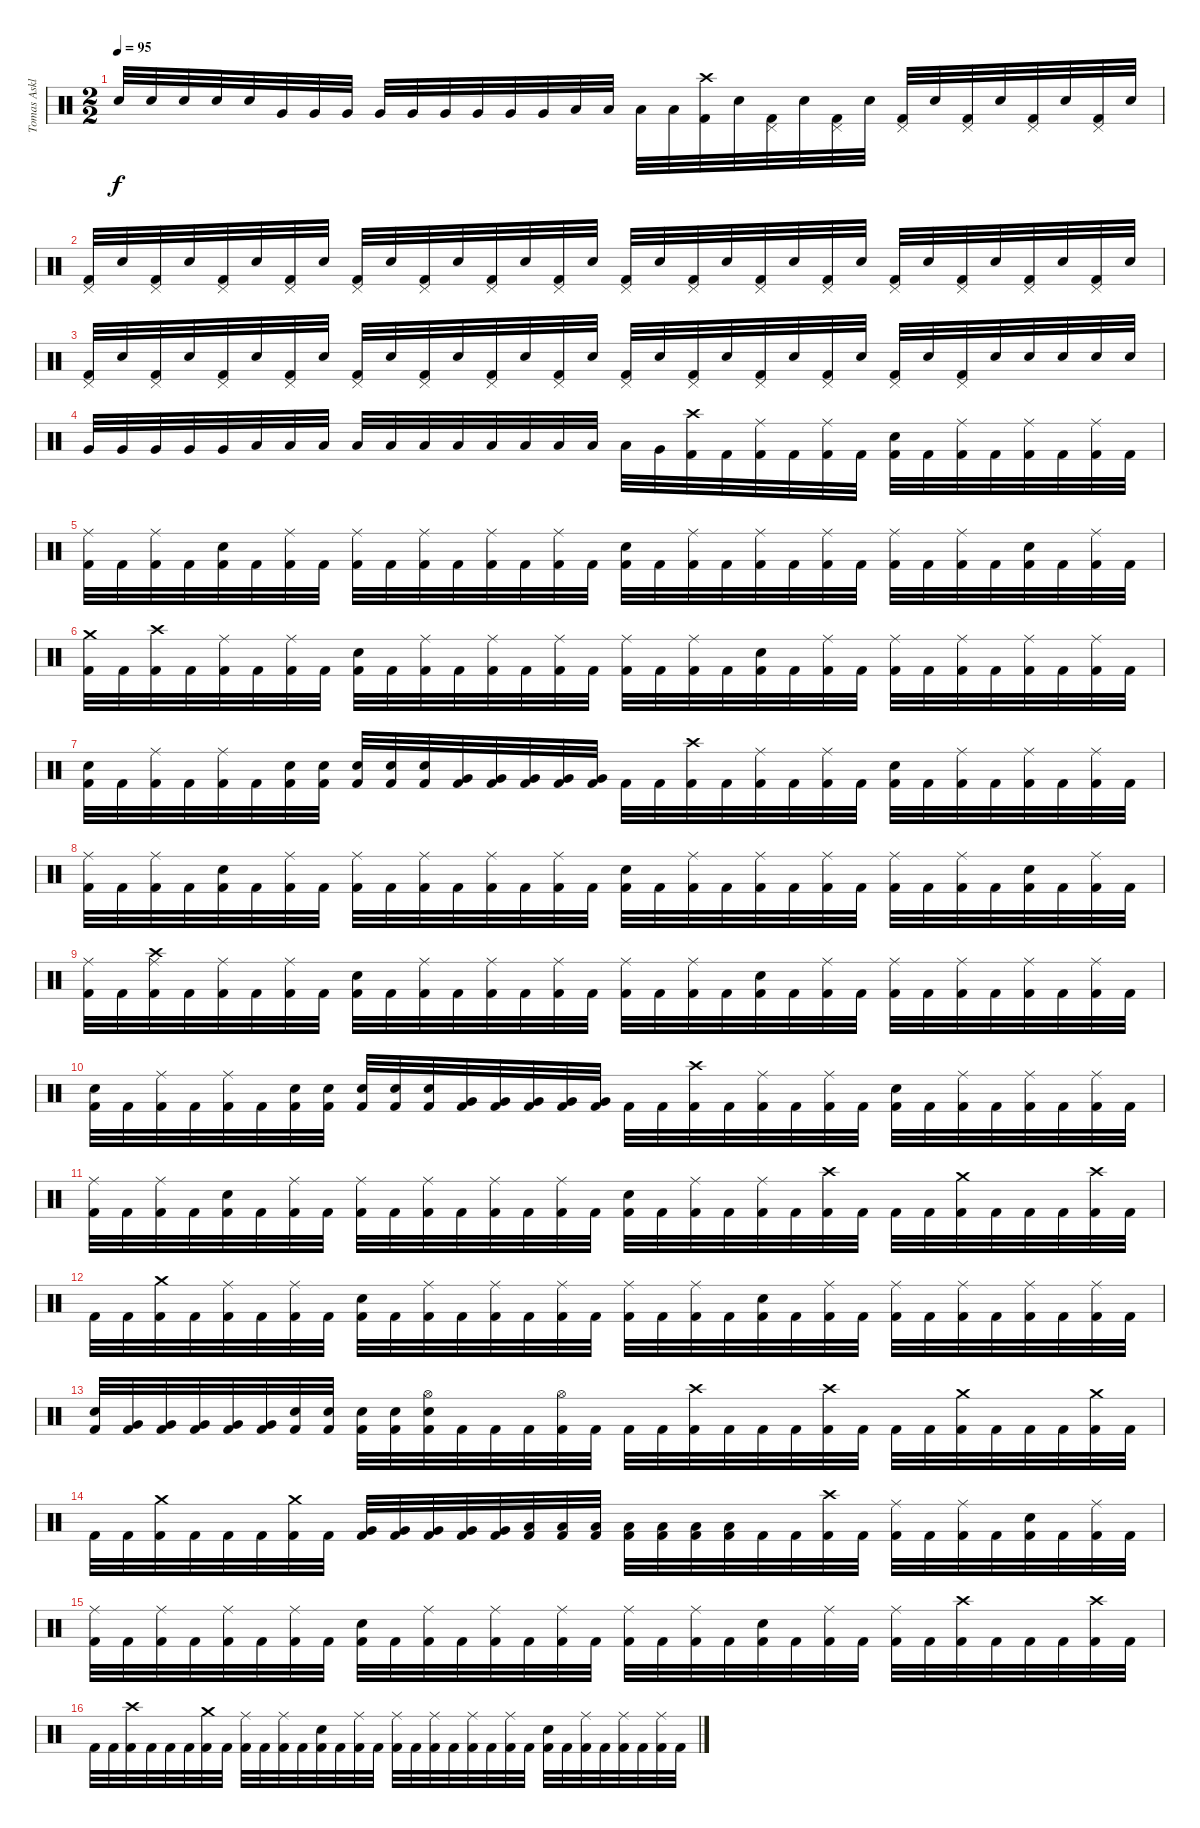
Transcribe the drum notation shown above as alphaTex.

\track ("Tomas Asklund" "Tomas Askl") {instrument percussion}
\staff {score}
\articulation defaults
\ts (2 2)
\tempo 95
\clef neutral
\ks c "Electric Snare (hit)".32{dy f} "Electric Snare (hit)".32 "Electric Snare (hit)".32 "Electric Snare (hit)".32 "Electric Snare (hit)".32 "Very Low Tom (hit)".32 "Very Low Tom (hit)".32 "Very Low Tom (hit)".32 "Very Low Tom (hit)".32 "Very Low Tom (hit)".32 "Very Low Tom (hit)".32 "Very Low Tom (hit)".32 "Very Low Tom (hit)".32 "Very Low Tom (hit)".32 "Low Tom (hit)".32 "Low Tom (hit)".32 "Low Tom (hit)".32 "Low Tom (hit)".32
("Crash high (hit)" "Kick (hit) 2").32 "Snare (hit) 2".32 ("Pedal Hi-Hat (hit)" "Kick (hit) 2").32 "Snare (hit) 2".32 ("Pedal Hi-Hat (hit)" "Kick (hit) 2").32 "Snare (hit) 2".32 ("Pedal Hi-Hat (hit)" "Kick (hit) 2").32 "Snare (hit) 2".32 ("Pedal Hi-Hat (hit)" "Kick (hit) 2").32 "Snare (hit) 2".32 ("Pedal Hi-Hat (hit)" "Kick (hit) 2").32 "Snare (hit) 2".32 ("Pedal Hi-Hat (hit)" "Kick (hit) 2").32 "Snare (hit) 2".32 |
("Pedal Hi-Hat (hit)" "Kick (hit) 2").32 "Snare (hit) 2".32 ("Pedal Hi-Hat (hit)" "Kick (hit) 2").32 "Snare (hit) 2".32 ("Pedal Hi-Hat (hit)" "Kick (hit) 2").32 "Snare (hit) 2".32 ("Pedal Hi-Hat (hit)" "Kick (hit) 2").32 "Snare (hit) 2".32 ("Pedal Hi-Hat (hit)" "Kick (hit) 2").32 "Snare (hit) 2".32 ("Pedal Hi-Hat (hit)" "Kick (hit) 2").32 "Snare (hit) 2".32 ("Pedal Hi-Hat (hit)" "Kick (hit) 2").32 "Snare (hit) 2".32 ("Pedal Hi-Hat (hit)" "Kick (hit) 2").32 "Snare (hit) 2".32 ("Pedal Hi-Hat (hit)" "Kick (hit) 2").32 "Snare (hit) 2".32 ("Pedal Hi-Hat (hit)" "Kick (hit) 2").32 "Snare (hit) 2".32 ("Pedal Hi-Hat (hit)" "Kick (hit) 2").32 "Snare (hit) 2".32 ("Pedal Hi-Hat (hit)" "Kick (hit) 2").32 "Snare (hit) 2".32 ("Pedal Hi-Hat (hit)" "Kick (hit) 2").32 "Snare (hit) 2".32 ("Pedal Hi-Hat (hit)" "Kick (hit) 2").32 "Snare (hit) 2".32 ("Pedal Hi-Hat (hit)" "Kick (hit) 2").32 "Snare (hit) 2".32 ("Pedal Hi-Hat (hit)" "Kick (hit) 2").32 "Snare (hit) 2".32 |
("Pedal Hi-Hat (hit)" "Kick (hit) 2").32 "Snare (hit) 2".32 ("Pedal Hi-Hat (hit)" "Kick (hit) 2").32 "Snare (hit) 2".32 ("Pedal Hi-Hat (hit)" "Kick (hit) 2").32 "Snare (hit) 2".32 ("Pedal Hi-Hat (hit)" "Kick (hit) 2").32 "Snare (hit) 2".32 ("Pedal Hi-Hat (hit)" "Kick (hit) 2").32 "Snare (hit) 2".32 ("Pedal Hi-Hat (hit)" "Kick (hit) 2").32 "Snare (hit) 2".32 ("Pedal Hi-Hat (hit)" "Kick (hit) 2").32 "Snare (hit) 2".32 ("Pedal Hi-Hat (hit)" "Kick (hit) 2").32 "Snare (hit) 2".32 ("Pedal Hi-Hat (hit)" "Kick (hit) 2").32 "Snare (hit) 2".32 ("Pedal Hi-Hat (hit)" "Kick (hit) 2").32 "Snare (hit) 2".32 ("Pedal Hi-Hat (hit)" "Kick (hit) 2").32 "Snare (hit) 2".32 ("Pedal Hi-Hat (hit)" "Kick (hit) 2").32 "Snare (hit) 2".32 ("Pedal Hi-Hat (hit)" "Kick (hit) 2").32 "Snare (hit) 2".32 ("Pedal Hi-Hat (hit)" "Kick (hit) 2").32 "Snare (hit) 2".32 "Snare (hit) 2".32 "Snare (hit) 2".32 "Snare (hit) 2".32 "Snare (hit) 2".32 |
"Very Low Tom (hit)".32 "Very Low Tom (hit)".32 "Very Low Tom (hit)".32 "Very Low Tom (hit)".32 "Very Low Tom (hit)".32 "Low Tom (hit)".32 "Low Tom (hit)".32 "Low Tom (hit)".32 "Low Tom (hit)".32 "Low Tom (hit)".32 "Low Tom (hit)".32 "Low Floor Tom (hit)".32 "Low Floor Tom (hit)".32 "Low Floor Tom (hit)".32 "Low Floor Tom (hit)".32 "Low Floor Tom (hit)".32 "Low Floor Tom (hit)".32 "Very Low Tom (hit)".32 ("Crash high (hit)" "Kick (hit) 2").32 "Kick (hit) 2".32 ("Ride (middle)" "Kick (hit) 2").32 "Kick (hit) 2".32 ("Ride (middle)" "Kick (hit) 2").32 "Kick (hit) 2".32 ("Electric Snare (hit)" "Kick (hit) 2").32 "Kick (hit) 2".32 ("Ride (middle)" "Kick (hit) 2").32 "Kick (hit) 2".32 ("Ride (middle)" "Kick (hit) 2").32 "Kick (hit) 2".32 ("Ride (middle)" "Kick (hit) 2").32 "Kick (hit) 2".32 |
("Ride (middle)" "Kick (hit) 2").32 "Kick (hit) 2".32 ("Ride (middle)" "Kick (hit) 2").32 "Kick (hit) 2".32 ("Electric Snare (hit)" "Kick (hit) 2").32 "Kick (hit) 2".32 ("Ride (middle)" "Kick (hit) 2").32 "Kick (hit) 2".32 ("Ride (middle)" "Kick (hit) 2").32 "Kick (hit) 2".32 ("Ride (middle)" "Kick (hit) 2").32 "Kick (hit) 2".32 ("Ride (middle)" "Kick (hit) 2").32 "Kick (hit) 2".32 ("Ride (middle)" "Kick (hit) 2").32 "Kick (hit) 2".32 ("Electric Snare (hit)" "Kick (hit) 2").32 "Kick (hit) 2".32 ("Ride (middle)" "Kick (hit) 2").32 "Kick (hit) 2".32 ("Ride (middle)" "Kick (hit) 2").32 "Kick (hit) 2".32 ("Ride (middle)" "Kick (hit) 2").32 "Kick (hit) 2".32 ("Ride (middle)" "Kick (hit) 2").32 "Kick (hit) 2".32 ("Ride (middle)" "Kick (hit) 2").32 "Kick (hit) 2".32 ("Electric Snare (hit)" "Kick (hit) 2").32 "Kick (hit) 2".32 ("Ride (middle)" "Kick (hit) 2").32 "Kick (hit) 2".32 |
("Crash medium (hit)" "Kick (hit) 2").32 "Kick (hit) 2".32 ("Crash high (hit)" "Kick (hit) 2").32 "Kick (hit) 2".32 ("Ride (middle)" "Kick (hit) 2").32 "Kick (hit) 2".32 ("Ride (middle)" "Kick (hit) 2").32 "Kick (hit) 2".32 ("Electric Snare (hit)" "Kick (hit) 2").32 "Kick (hit) 2".32 ("Ride (middle)" "Kick (hit) 2").32 "Kick (hit) 2".32 ("Ride (middle)" "Kick (hit) 2").32 "Kick (hit) 2".32 ("Ride (middle)" "Kick (hit) 2").32 "Kick (hit) 2".32 ("Ride (middle)" "Kick (hit) 2").32 "Kick (hit) 2".32 ("Ride (middle)" "Kick (hit) 2").32 "Kick (hit) 2".32 ("Electric Snare (hit)" "Kick (hit) 2").32 "Kick (hit) 2".32 ("Ride (middle)" "Kick (hit) 2").32 "Kick (hit) 2".32 ("Ride (middle)" "Kick (hit) 2").32 "Kick (hit) 2".32 ("Ride (middle)" "Kick (hit) 2").32 "Kick (hit) 2".32 ("Ride (middle)" "Kick (hit) 2").32 "Kick (hit) 2".32 ("Ride (middle)" "Kick (hit) 2").32 "Kick (hit) 2".32 |
("Electric Snare (hit)" "Kick (hit) 2").32 "Kick (hit) 2".32 ("Ride (middle)" "Kick (hit) 2").32 "Kick (hit) 2".32 ("Ride (middle)" "Kick (hit) 2").32 "Kick (hit) 2".32 ("Electric Snare (hit)" "Kick (hit) 2").32 ("Electric Snare (hit)" "Kick (hit) 2").32 ("Electric Snare (hit)" "Kick (hit) 2").32 ("Electric Snare (hit)" "Kick (hit) 2").32 ("Electric Snare (hit)" "Kick (hit) 2").32 ("Very Low Tom (hit)" "Kick (hit) 2").32 ("Very Low Tom (hit)" "Kick (hit) 2").32 ("Very Low Tom (hit)" "Kick (hit) 2").32 ("Very Low Tom (hit)" "Kick (hit) 2").32 ("Very Low Tom (hit)" "Kick (hit) 2").32 "Kick (hit) 2".32 "Kick (hit) 2".32 ("Crash high (hit)" "Kick (hit) 2").32 "Kick (hit) 2".32 ("Ride (middle)" "Kick (hit) 2").32 "Kick (hit) 2".32 ("Ride (middle)" "Kick (hit) 2").32 "Kick (hit) 2".32 ("Electric Snare (hit)" "Kick (hit) 2").32 "Kick (hit) 2".32 ("Ride (middle)" "Kick (hit) 2").32 "Kick (hit) 2".32 ("Ride (middle)" "Kick (hit) 2").32 "Kick (hit) 2".32 ("Ride (middle)" "Kick (hit) 2").32 "Kick (hit) 2".32 |
("Ride (middle)" "Kick (hit) 2").32 "Kick (hit) 2".32 ("Ride (middle)" "Kick (hit) 2").32 "Kick (hit) 2".32 ("Electric Snare (hit)" "Kick (hit) 2").32 "Kick (hit) 2".32 ("Ride (middle)" "Kick (hit) 2").32 "Kick (hit) 2".32 ("Ride (middle)" "Kick (hit) 2").32 "Kick (hit) 2".32 ("Ride (middle)" "Kick (hit) 2").32 "Kick (hit) 2".32 ("Ride (middle)" "Kick (hit) 2").32 "Kick (hit) 2".32 ("Ride (middle)" "Kick (hit) 2").32 "Kick (hit) 2".32 ("Electric Snare (hit)" "Kick (hit) 2").32 "Kick (hit) 2".32 ("Ride (middle)" "Kick (hit) 2").32 "Kick (hit) 2".32 ("Ride (middle)" "Kick (hit) 2").32 "Kick (hit) 2".32 ("Ride (middle)" "Kick (hit) 2").32 "Kick (hit) 2".32 ("Ride (middle)" "Kick (hit) 2").32 "Kick (hit) 2".32 ("Ride (middle)" "Kick (hit) 2").32 "Kick (hit) 2".32 ("Electric Snare (hit)" "Kick (hit) 2").32 "Kick (hit) 2".32 ("Ride (middle)" "Kick (hit) 2").32 "Kick (hit) 2".32 |
("Ride (middle)" "Kick (hit) 2").32 "Kick (hit) 2".32 ("Crash high (hit)" "Ride (middle)" "Kick (hit) 2").32 "Kick (hit) 2".32 ("Ride (middle)" "Kick (hit) 2").32 "Kick (hit) 2".32 ("Ride (middle)" "Kick (hit) 2").32 "Kick (hit) 2".32 ("Electric Snare (hit)" "Kick (hit) 2").32 "Kick (hit) 2".32 ("Ride (middle)" "Kick (hit) 2").32 "Kick (hit) 2".32 ("Ride (middle)" "Kick (hit) 2").32 "Kick (hit) 2".32 ("Ride (middle)" "Kick (hit) 2").32 "Kick (hit) 2".32 ("Ride (middle)" "Kick (hit) 2").32 "Kick (hit) 2".32 ("Ride (middle)" "Kick (hit) 2").32 "Kick (hit) 2".32 ("Electric Snare (hit)" "Kick (hit) 2").32 "Kick (hit) 2".32 ("Ride (middle)" "Kick (hit) 2").32 "Kick (hit) 2".32 ("Ride (middle)" "Kick (hit) 2").32 "Kick (hit) 2".32 ("Ride (middle)" "Kick (hit) 2").32 "Kick (hit) 2".32 ("Ride (middle)" "Kick (hit) 2").32 "Kick (hit) 2".32 ("Ride (middle)" "Kick (hit) 2").32 "Kick (hit) 2".32 |
("Electric Snare (hit)" "Kick (hit) 2").32 "Kick (hit) 2".32 ("Ride (middle)" "Kick (hit) 2").32 "Kick (hit) 2".32 ("Ride (middle)" "Kick (hit) 2").32 "Kick (hit) 2".32 ("Electric Snare (hit)" "Kick (hit) 2").32 ("Electric Snare (hit)" "Kick (hit) 2").32 ("Electric Snare (hit)" "Kick (hit) 2").32 ("Electric Snare (hit)" "Kick (hit) 2").32 ("Electric Snare (hit)" "Kick (hit) 2").32 ("Very Low Tom (hit)" "Kick (hit) 2").32 ("Very Low Tom (hit)" "Kick (hit) 2").32 ("Very Low Tom (hit)" "Kick (hit) 2").32 ("Very Low Tom (hit)" "Kick (hit) 2").32 ("Very Low Tom (hit)" "Kick (hit) 2").32 "Kick (hit) 2".32 "Kick (hit) 2".32 ("Crash high (hit)" "Kick (hit) 2").32 "Kick (hit) 2".32 ("Ride (middle)" "Kick (hit) 2").32 "Kick (hit) 2".32 ("Ride (middle)" "Kick (hit) 2").32 "Kick (hit) 2".32 ("Electric Snare (hit)" "Kick (hit) 2").32 "Kick (hit) 2".32 ("Ride (middle)" "Kick (hit) 2").32 "Kick (hit) 2".32 ("Ride (middle)" "Kick (hit) 2").32 "Kick (hit) 2".32 ("Ride (middle)" "Kick (hit) 2").32 "Kick (hit) 2".32 |
("Ride (middle)" "Kick (hit) 2").32 "Kick (hit) 2".32 ("Ride (middle)" "Kick (hit) 2").32 "Kick (hit) 2".32 ("Electric Snare (hit)" "Kick (hit) 2").32 "Kick (hit) 2".32 ("Ride (middle)" "Kick (hit) 2").32 "Kick (hit) 2".32 ("Ride (middle)" "Kick (hit) 2").32 "Kick (hit) 2".32 ("Ride (middle)" "Kick (hit) 2").32 "Kick (hit) 2".32 ("Ride (middle)" "Kick (hit) 2").32 "Kick (hit) 2".32 ("Ride (middle)" "Kick (hit) 2").32 "Kick (hit) 2".32 ("Electric Snare (hit)" "Kick (hit) 2").32 "Kick (hit) 2".32 ("Ride (middle)" "Kick (hit) 2").32 "Kick (hit) 2".32 ("Ride (middle)" "Kick (hit) 2").32 "Kick (hit) 2".32 ("Crash high (hit)" "Kick (hit) 2").32 "Kick (hit) 2".32 "Kick (hit) 2".32 "Kick (hit) 2".32 ("Crash medium (hit)" "Kick (hit) 2").32 "Kick (hit) 2".32 "Kick (hit) 2".32 "Kick (hit) 2".32 ("Crash high (hit)" "Kick (hit) 2").32 "Kick (hit) 2".32 |
"Kick (hit) 2".32 "Kick (hit) 2".32 ("Crash medium (hit)" "Kick (hit) 2").32 "Kick (hit) 2".32 ("Ride (middle)" "Kick (hit) 2").32 "Kick (hit) 2".32 ("Ride (middle)" "Kick (hit) 2").32 "Kick (hit) 2".32 ("Electric Snare (hit)" "Kick (hit) 2").32 "Kick (hit) 2".32 ("Ride (middle)" "Kick (hit) 2").32 "Kick (hit) 2".32 ("Ride (middle)" "Kick (hit) 2").32 "Kick (hit) 2".32 ("Ride (middle)" "Kick (hit) 2").32 "Kick (hit) 2".32 ("Ride (middle)" "Kick (hit) 2").32 "Kick (hit) 2".32 ("Ride (middle)" "Kick (hit) 2").32 "Kick (hit) 2".32 ("Electric Snare (hit)" "Kick (hit) 2").32 "Kick (hit) 2".32 ("Ride (middle)" "Kick (hit) 2").32 "Kick (hit) 2".32 ("Ride (middle)" "Kick (hit) 2").32 "Kick (hit) 2".32 ("Ride (middle)" "Kick (hit) 2").32 "Kick (hit) 2".32 ("Ride (middle)" "Kick (hit) 2").32 "Kick (hit) 2".32 ("Ride (middle)" "Kick (hit) 2").32 "Kick (hit) 2".32 |
("Electric Snare (hit)" "Kick (hit) 2").32 ("Very Low Tom (hit)" "Kick (hit) 2").32 ("Very Low Tom (hit)" "Kick (hit) 2").32 ("Very Low Tom (hit)" "Kick (hit) 2").32 ("Very Low Tom (hit)" "Kick (hit) 2").32 ("Very Low Tom (hit)" "Kick (hit) 2").32 ("Electric Snare (hit)" "Kick (hit) 2").32 ("Electric Snare (hit)" "Kick (hit) 2").32 ("Electric Snare (hit)" "Kick (hit) 2").32 ("Electric Snare (hit)" "Kick (hit) 2").32 ("Hi-Hat (open)" "Electric Snare (hit)" "Kick (hit) 2").32 "Kick (hit) 2".32 "Kick (hit) 2".32 "Kick (hit) 2".32 ("Hi-Hat (open)" "Kick (hit) 2").32 "Kick (hit) 2".32 "Kick (hit) 2".32 "Kick (hit) 2".32 ("Crash high (hit)" "Kick (hit) 2").32 "Kick (hit) 2".32 "Kick (hit) 2".32 "Kick (hit) 2".32 ("Crash high (hit)" "Kick (hit) 2").32 "Kick (hit) 2".32 "Kick (hit) 2".32 "Kick (hit) 2".32 ("Crash medium (hit)" "Kick (hit) 2").32 "Kick (hit) 2".32 "Kick (hit) 2".32 "Kick (hit) 2".32 ("Crash medium (hit)" "Kick (hit) 2").32 "Kick (hit) 2".32 |
"Kick (hit) 2".32 "Kick (hit) 2".32 ("Crash medium (hit)" "Kick (hit) 2").32 "Kick (hit) 2".32 "Kick (hit) 2".32 "Kick (hit) 2".32 ("Crash medium (hit)" "Kick (hit) 2").32 "Kick (hit) 2".32 ("Very Low Tom (hit)" "Kick (hit) 2").32 ("Very Low Tom (hit)" "Kick (hit) 2").32 ("Very Low Tom (hit)" "Kick (hit) 2").32 ("Very Low Tom (hit)" "Kick (hit) 2").32 ("Very Low Tom (hit)" "Kick (hit) 2").32 ("Low Tom (hit)" "Kick (hit) 2").32 ("Low Tom (hit)" "Kick (hit) 2").32 ("Low Tom (hit)" "Kick (hit) 2").32 ("Low Tom (hit)" "Kick (hit) 2").32 ("Low Tom (hit)" "Kick (hit) 2").32 ("Low Tom (hit)" "Kick (hit) 2").32 ("Low Tom (hit)" "Kick (hit) 2").32 "Kick (hit) 2".32 "Kick (hit) 2".32 ("Crash high (hit)" "Kick (hit) 2").32 "Kick (hit) 2".32 ("Ride (middle)" "Kick (hit) 2").32 "Kick (hit) 2".32 ("Ride (middle)" "Kick (hit) 2").32 "Kick (hit) 2".32 ("Electric Snare (hit)" "Kick (hit) 2").32 "Kick (hit) 2".32 ("Ride (middle)" "Kick (hit) 2").32 "Kick (hit) 2".32 |
("Ride (middle)" "Kick (hit) 2").32 "Kick (hit) 2".32 ("Ride (middle)" "Kick (hit) 2").32 "Kick (hit) 2".32 ("Ride (middle)" "Kick (hit) 2").32 "Kick (hit) 2".32 ("Ride (middle)" "Kick (hit) 2").32 "Kick (hit) 2".32 ("Electric Snare (hit)" "Kick (hit) 2").32 "Kick (hit) 2".32 ("Ride (middle)" "Kick (hit) 2").32 "Kick (hit) 2".32 ("Ride (middle)" "Kick (hit) 2").32 "Kick (hit) 2".32 ("Ride (middle)" "Kick (hit) 2").32 "Kick (hit) 2".32 ("Ride (middle)" "Kick (hit) 2").32 "Kick (hit) 2".32 ("Ride (middle)" "Kick (hit) 2").32 "Kick (hit) 2".32 ("Electric Snare (hit)" "Kick (hit) 2").32 "Kick (hit) 2".32 ("Ride (middle)" "Kick (hit) 2").32 "Kick (hit) 2".32 ("Ride (middle)" "Kick (hit) 2").32 "Kick (hit) 2".32 ("Crash high (hit)" "Kick (hit) 2").32 "Kick (hit) 2".32 "Kick (hit) 2".32 "Kick (hit) 2".32 ("Crash high (hit)" "Kick (hit) 2").32 "Kick (hit) 2".32 |
"Kick (hit) 2".32 "Kick (hit) 2".32 ("Crash high (hit)" "Kick (hit) 2").32 "Kick (hit) 2".32 "Kick (hit) 2".32 "Kick (hit) 2".32 ("Crash medium (hit)" "Kick (hit) 2").32 "Kick (hit) 2".32 ("Ride (middle)" "Kick (hit) 2").32 "Kick (hit) 2".32 ("Ride (middle)" "Kick (hit) 2").32 "Kick (hit) 2".32 ("Electric Snare (hit)" "Kick (hit) 2").32 "Kick (hit) 2".32 ("Ride (middle)" "Kick (hit) 2").32 "Kick (hit) 2".32 ("Ride (middle)" "Kick (hit) 2").32 "Kick (hit) 2".32 ("Ride (middle)" "Kick (hit) 2").32 "Kick (hit) 2".32 ("Ride (middle)" "Kick (hit) 2").32 "Kick (hit) 2".32 ("Ride (middle)" "Kick (hit) 2").32 "Kick (hit) 2".32 ("Electric Snare (hit)" "Kick (hit) 2").32 "Kick (hit) 2".32 ("Ride (middle)" "Kick (hit) 2").32 "Kick (hit) 2".32 ("Ride (middle)" "Kick (hit) 2").32 "Kick (hit) 2".32 ("Ride (middle)" "Kick (hit) 2").32 "Kick (hit) 2".32
